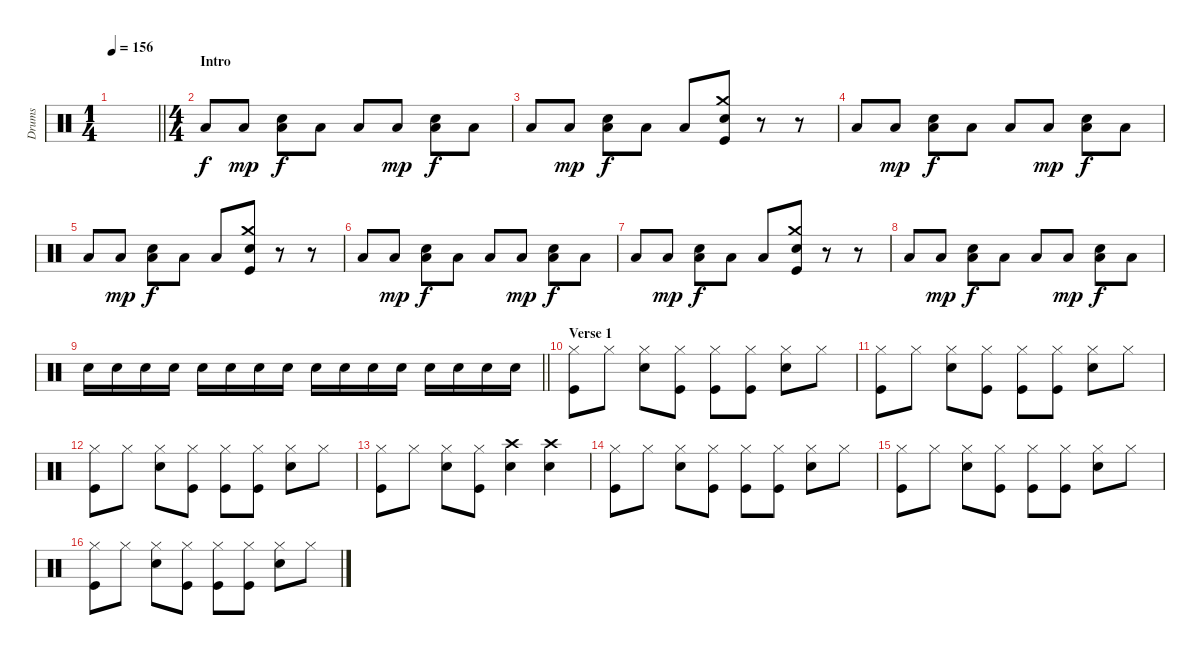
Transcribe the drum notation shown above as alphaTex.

\track ("Drums" "Drums") {instrument percussion}
\staff {score}
\articulation defaults
\ts (1 4)
\tempo 156
\clef neutral
\barLineRight lightlight
\ks c
|
\ts (4 4)
\section ("" "Intro")
"Low Tom (hit)".8 "Low Tom (hit)".8{dy mp} ("Snare (hit) 2" "Low Tom (hit)").8{dy f} "Low Tom (hit)".8 "Low Tom (hit)".8 "Low Tom (hit)".8{dy mp} ("Snare (hit) 2" "Low Tom (hit)").8{dy f} "Low Tom (hit)".8 |
"Low Tom (hit)".8 "Low Tom (hit)".8{dy mp} ("Snare (hit) 2" "Low Tom (hit)").8{dy f} "Low Tom (hit)".8 "Low Tom (hit)".8 ("Crash medium (hit)" "Snare (hit) 2" "Kick (hit)").8 r.8 r.8 |
"Low Tom (hit)".8 "Low Tom (hit)".8{dy mp} ("Snare (hit) 2" "Low Tom (hit)").8{dy f} "Low Tom (hit)".8 "Low Tom (hit)".8 "Low Tom (hit)".8{dy mp} ("Snare (hit) 2" "Low Tom (hit)").8{dy f} "Low Tom (hit)".8 |
"Low Tom (hit)".8 "Low Tom (hit)".8{dy mp} ("Snare (hit) 2" "Low Tom (hit)").8{dy f} "Low Tom (hit)".8 "Low Tom (hit)".8 ("Crash medium (hit)" "Snare (hit) 2" "Kick (hit)").8 r.8 r.8 |
"Low Tom (hit)".8 "Low Tom (hit)".8{dy mp} ("Snare (hit) 2" "Low Tom (hit)").8{dy f} "Low Tom (hit)".8 "Low Tom (hit)".8 "Low Tom (hit)".8{dy mp} ("Snare (hit) 2" "Low Tom (hit)").8{dy f} "Low Tom (hit)".8 |
"Low Tom (hit)".8 "Low Tom (hit)".8{dy mp} ("Snare (hit) 2" "Low Tom (hit)").8{dy f} "Low Tom (hit)".8 "Low Tom (hit)".8 ("Crash medium (hit)" "Snare (hit) 2" "Kick (hit)").8 r.8 r.8 |
"Low Tom (hit)".8 "Low Tom (hit)".8{dy mp} ("Snare (hit) 2" "Low Tom (hit)").8{dy f} "Low Tom (hit)".8 "Low Tom (hit)".8 "Low Tom (hit)".8{dy mp} ("Snare (hit) 2" "Low Tom (hit)").8{dy f} "Low Tom (hit)".8 |
\barLineRight lightlight "Snare (hit) 2".16 "Snare (hit) 2".16 "Snare (hit) 2".16 "Snare (hit) 2".16 "Snare (hit) 2".16 "Snare (hit) 2".16 "Snare (hit) 2".16 "Snare (hit) 2".16 "Snare (hit) 2".16 "Snare (hit) 2".16 "Snare (hit) 2".16 "Snare (hit) 2".16 "Snare (hit) 2".16 "Snare (hit) 2".16 "Snare (hit) 2".16 "Snare (hit) 2".16
|
\section ("" "Verse 1")
("Hi-Hat (closed)" "Kick (hit)").8 "Hi-Hat (closed)".8 ("Hi-Hat (closed)" "Snare (hit) 2").8 ("Hi-Hat (closed)" "Kick (hit)").8 ("Hi-Hat (closed)" "Kick (hit)").8 ("Hi-Hat (closed)" "Kick (hit)").8 ("Hi-Hat (closed)" "Snare (hit) 2").8 "Hi-Hat (closed)".8 |
("Hi-Hat (closed)" "Kick (hit)").8 "Hi-Hat (closed)".8 ("Hi-Hat (closed)" "Snare (hit) 2").8 ("Hi-Hat (closed)" "Kick (hit)").8 ("Hi-Hat (closed)" "Kick (hit)").8 ("Hi-Hat (closed)" "Kick (hit)").8 ("Hi-Hat (closed)" "Snare (hit) 2").8 "Hi-Hat (closed)".8 |
("Hi-Hat (closed)" "Kick (hit)").8 "Hi-Hat (closed)".8 ("Hi-Hat (closed)" "Snare (hit) 2").8 ("Hi-Hat (closed)" "Kick (hit)").8 ("Hi-Hat (closed)" "Kick (hit)").8 ("Hi-Hat (closed)" "Kick (hit)").8 ("Hi-Hat (closed)" "Snare (hit) 2").8 "Hi-Hat (closed)".8 |
("Hi-Hat (closed)" "Kick (hit)").8 "Hi-Hat (closed)".8 ("Hi-Hat (closed)" "Snare (hit) 2").8 ("Hi-Hat (closed)" "Kick (hit)").8 ("Snare (hit) 2" "Crash high (hit)").4 ("Snare (hit) 2" "Crash high (hit)").4 |
("Hi-Hat (closed)" "Kick (hit)").8 "Hi-Hat (closed)".8 ("Hi-Hat (closed)" "Snare (hit) 2").8 ("Hi-Hat (closed)" "Kick (hit)").8 ("Hi-Hat (closed)" "Kick (hit)").8 ("Hi-Hat (closed)" "Kick (hit)").8 ("Hi-Hat (closed)" "Snare (hit) 2").8 "Hi-Hat (closed)".8 |
("Hi-Hat (closed)" "Kick (hit)").8 "Hi-Hat (closed)".8 ("Hi-Hat (closed)" "Snare (hit) 2").8 ("Hi-Hat (closed)" "Kick (hit)").8 ("Hi-Hat (closed)" "Kick (hit)").8 ("Hi-Hat (closed)" "Kick (hit)").8 ("Hi-Hat (closed)" "Snare (hit) 2").8 "Hi-Hat (closed)".8 |
("Hi-Hat (closed)" "Kick (hit)").8 "Hi-Hat (closed)".8 ("Hi-Hat (closed)" "Snare (hit) 2").8 ("Hi-Hat (closed)" "Kick (hit)").8 ("Hi-Hat (closed)" "Kick (hit)").8 ("Hi-Hat (closed)" "Kick (hit)").8 ("Hi-Hat (closed)" "Snare (hit) 2").8 "Hi-Hat (closed)".8
